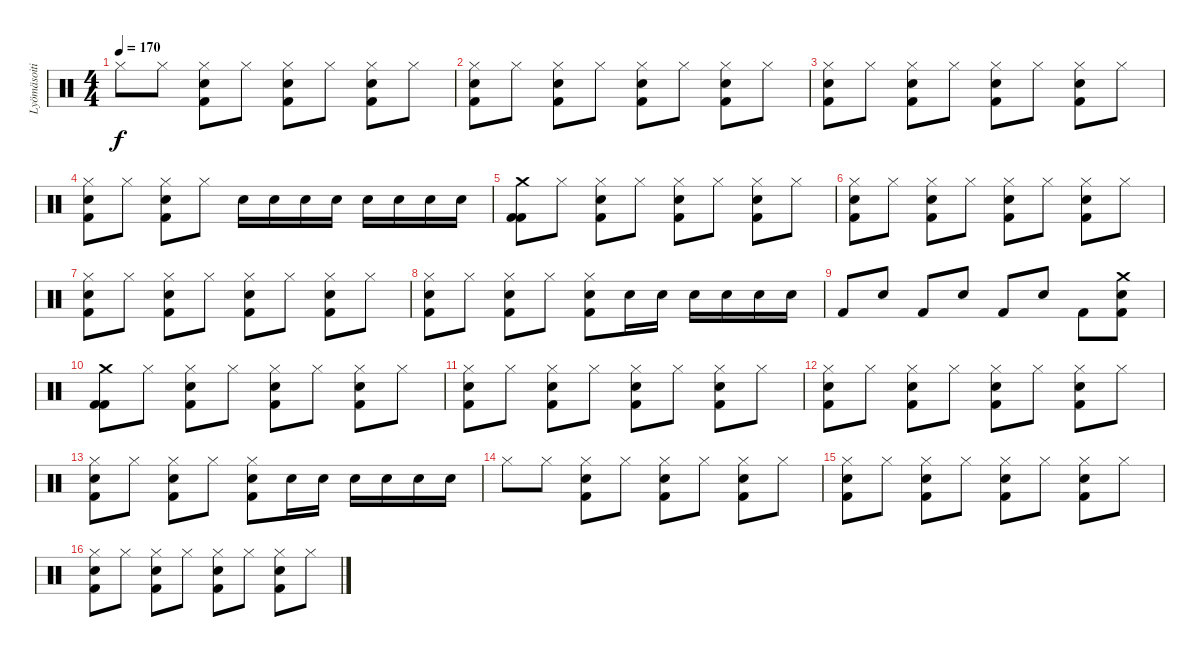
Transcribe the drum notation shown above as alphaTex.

\track ("Lyömäsoitin" "Lyömäsoiti") {instrument percussion}
\staff {score}
\articulation defaults
\ts (4 4)
\tempo 170
\clef neutral
\ks c "Hi-Hat (closed)".8{dy f} "Hi-Hat (closed)".8
("Hi-Hat (closed)" "Snare (hit) 2" "Kick (hit) 2").8 "Hi-Hat (closed)".8 ("Hi-Hat (closed)" "Snare (hit) 2" "Kick (hit) 2").8 "Hi-Hat (closed)".8 ("Hi-Hat (closed)" "Snare (hit) 2" "Kick (hit) 2").8 "Hi-Hat (closed)".8 |
("Hi-Hat (closed)" "Snare (hit) 2" "Kick (hit) 2").8 "Hi-Hat (closed)".8 ("Hi-Hat (closed)" "Snare (hit) 2" "Kick (hit) 2").8 "Hi-Hat (closed)".8 ("Hi-Hat (closed)" "Snare (hit) 2" "Kick (hit) 2").8 "Hi-Hat (closed)".8 ("Hi-Hat (closed)" "Snare (hit) 2" "Kick (hit) 2").8 "Hi-Hat (closed)".8 |
("Hi-Hat (closed)" "Snare (hit) 2" "Kick (hit) 2").8 "Hi-Hat (closed)".8 ("Hi-Hat (closed)" "Snare (hit) 2" "Kick (hit) 2").8 "Hi-Hat (closed)".8 ("Hi-Hat (closed)" "Snare (hit) 2" "Kick (hit) 2").8 "Hi-Hat (closed)".8 ("Hi-Hat (closed)" "Snare (hit) 2" "Kick (hit) 2").8 "Hi-Hat (closed)".8 |
("Hi-Hat (closed)" "Snare (hit) 2" "Kick (hit) 2").8 "Hi-Hat (closed)".8 ("Hi-Hat (closed)" "Snare (hit) 2" "Kick (hit) 2").8 "Hi-Hat (closed)".8 "Snare (hit) 2".16 "Snare (hit) 2".16 "Snare (hit) 2".16 "Snare (hit) 2".16 "Snare (hit) 2".16 "Snare (hit) 2".16 "Snare (hit) 2".16 "Snare (hit) 2".16 |
("Crash medium (hit)" "Kick (hit) 2" "Kick (hit) 2").8 "Hi-Hat (closed)".8 ("Hi-Hat (closed)" "Snare (hit) 2" "Kick (hit) 2").8 "Hi-Hat (closed)".8 ("Hi-Hat (closed)" "Snare (hit) 2" "Kick (hit) 2").8 "Hi-Hat (closed)".8 ("Hi-Hat (closed)" "Snare (hit) 2" "Kick (hit) 2").8 "Hi-Hat (closed)".8 |
("Hi-Hat (closed)" "Snare (hit) 2" "Kick (hit) 2").8 "Hi-Hat (closed)".8 ("Hi-Hat (closed)" "Snare (hit) 2" "Kick (hit) 2").8 "Hi-Hat (closed)".8 ("Hi-Hat (closed)" "Snare (hit) 2" "Kick (hit) 2").8 "Hi-Hat (closed)".8 ("Hi-Hat (closed)" "Snare (hit) 2" "Kick (hit) 2").8 "Hi-Hat (closed)".8 |
("Hi-Hat (closed)" "Snare (hit) 2" "Kick (hit) 2").8 "Hi-Hat (closed)".8 ("Hi-Hat (closed)" "Snare (hit) 2" "Kick (hit) 2").8 "Hi-Hat (closed)".8 ("Hi-Hat (closed)" "Snare (hit) 2" "Kick (hit) 2").8 "Hi-Hat (closed)".8 ("Hi-Hat (closed)" "Snare (hit) 2" "Kick (hit) 2").8 "Hi-Hat (closed)".8 |
("Hi-Hat (closed)" "Snare (hit) 2" "Kick (hit) 2").8 "Hi-Hat (closed)".8 ("Hi-Hat (closed)" "Snare (hit) 2" "Kick (hit) 2").8 "Hi-Hat (closed)".8 ("Hi-Hat (closed)" "Snare (hit) 2" "Kick (hit) 2").8 "Snare (hit) 2".16 "Snare (hit) 2".16 "Snare (hit) 2".16 "Snare (hit) 2".16 "Snare (hit) 2".16 "Snare (hit) 2".16 |
"Kick (hit) 2".8 "Snare (hit) 2".8 "Kick (hit) 2".8 "Snare (hit) 2".8 "Kick (hit) 2".8 "Snare (hit) 2".8 "Kick (hit) 2".8 ("Crash medium (hit)" "Snare (hit) 2" "Kick (hit) 2").8 |
("Crash medium (hit)" "Kick (hit) 2" "Kick (hit) 2").8 "Hi-Hat (closed)".8 ("Hi-Hat (closed)" "Snare (hit) 2" "Kick (hit) 2").8 "Hi-Hat (closed)".8 ("Hi-Hat (closed)" "Snare (hit) 2" "Kick (hit) 2").8 "Hi-Hat (closed)".8 ("Hi-Hat (closed)" "Snare (hit) 2" "Kick (hit) 2").8 "Hi-Hat (closed)".8 |
("Hi-Hat (closed)" "Snare (hit) 2" "Kick (hit) 2").8 "Hi-Hat (closed)".8 ("Hi-Hat (closed)" "Snare (hit) 2" "Kick (hit) 2").8 "Hi-Hat (closed)".8 ("Hi-Hat (closed)" "Snare (hit) 2" "Kick (hit) 2").8 "Hi-Hat (closed)".8 ("Hi-Hat (closed)" "Snare (hit) 2" "Kick (hit) 2").8 "Hi-Hat (closed)".8 |
("Hi-Hat (closed)" "Snare (hit) 2" "Kick (hit) 2").8 "Hi-Hat (closed)".8 ("Hi-Hat (closed)" "Snare (hit) 2" "Kick (hit) 2").8 "Hi-Hat (closed)".8 ("Hi-Hat (closed)" "Snare (hit) 2" "Kick (hit) 2").8 "Hi-Hat (closed)".8 ("Hi-Hat (closed)" "Snare (hit) 2" "Kick (hit) 2").8 "Hi-Hat (closed)".8 |
("Hi-Hat (closed)" "Snare (hit) 2" "Kick (hit) 2").8 "Hi-Hat (closed)".8 ("Hi-Hat (closed)" "Snare (hit) 2" "Kick (hit) 2").8 "Hi-Hat (closed)".8 ("Hi-Hat (closed)" "Snare (hit) 2" "Kick (hit) 2").8 "Snare (hit) 2".16 "Snare (hit) 2".16 "Snare (hit) 2".16 "Snare (hit) 2".16 "Snare (hit) 2".16 "Snare (hit) 2".16 |
"Hi-Hat (closed)".8 "Hi-Hat (closed)".8 ("Hi-Hat (closed)" "Snare (hit) 2" "Kick (hit) 2").8 "Hi-Hat (closed)".8 ("Hi-Hat (closed)" "Snare (hit) 2" "Kick (hit) 2").8 "Hi-Hat (closed)".8 ("Hi-Hat (closed)" "Snare (hit) 2" "Kick (hit) 2").8 "Hi-Hat (closed)".8 |
("Hi-Hat (closed)" "Snare (hit) 2" "Kick (hit) 2").8 "Hi-Hat (closed)".8 ("Hi-Hat (closed)" "Snare (hit) 2" "Kick (hit) 2").8 "Hi-Hat (closed)".8 ("Hi-Hat (closed)" "Snare (hit) 2" "Kick (hit) 2").8 "Hi-Hat (closed)".8 ("Hi-Hat (closed)" "Snare (hit) 2" "Kick (hit) 2").8 "Hi-Hat (closed)".8 |
("Hi-Hat (closed)" "Snare (hit) 2" "Kick (hit) 2").8 "Hi-Hat (closed)".8 ("Hi-Hat (closed)" "Snare (hit) 2" "Kick (hit) 2").8 "Hi-Hat (closed)".8 ("Hi-Hat (closed)" "Snare (hit) 2" "Kick (hit) 2").8 "Hi-Hat (closed)".8 ("Hi-Hat (closed)" "Snare (hit) 2" "Kick (hit) 2").8 "Hi-Hat (closed)".8
